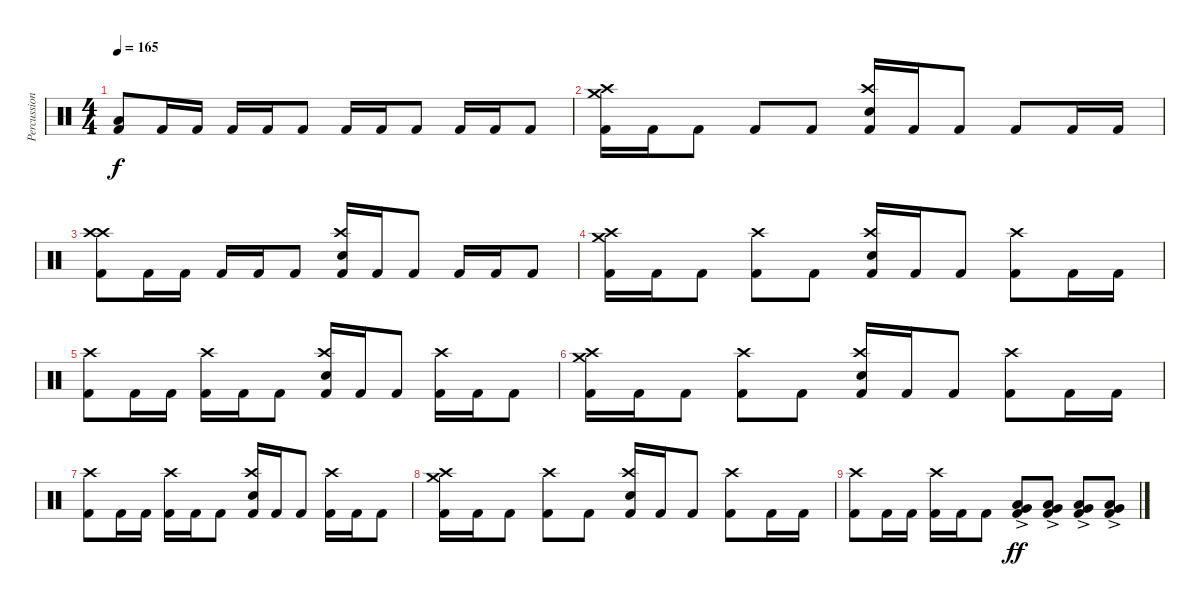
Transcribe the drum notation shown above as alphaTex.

\track ("Percussion" "Percussion") {instrument percussion}
\staff {score}
\articulation defaults
\ts (4 4)
\tempo 165
\clef neutral
\ks c
("Low Floor Tom (hit)" "Kick (hit) 2").8{dy f} "Kick (hit) 2".16 "Kick (hit) 2".16 "Kick (hit) 2".16 "Kick (hit) 2".16 "Kick (hit) 2".8 "Kick (hit) 2".16 "Kick (hit) 2".16 "Kick (hit) 2".8 "Kick (hit) 2".16 "Kick (hit) 2".16 "Kick (hit) 2".8 |
("Crash medium (hit)" "Crash high (hit)" "Kick (hit) 2").16 "Kick (hit) 2".16 "Kick (hit) 2".8 "Kick (hit) 2".8 "Kick (hit) 2".8 ("Crash high (hit)" "Snare (hit) 2" "Kick (hit) 2").16 "Kick (hit) 2".16 "Kick (hit) 2".8 "Kick (hit) 2".8 "Kick (hit) 2".16 "Kick (hit) 2".16 |
("Crash high (hit)" "Crash high (hit)" "Kick (hit) 2").8 "Kick (hit) 2".16 "Kick (hit) 2".16 "Kick (hit) 2".16 "Kick (hit) 2".16 "Kick (hit) 2".8 ("Crash high (hit)" "Snare (hit) 2" "Kick (hit) 2").16 "Kick (hit) 2".16 "Kick (hit) 2".8 "Kick (hit) 2".16 "Kick (hit) 2".16 "Kick (hit) 2".8 |
("Crash medium (hit)" "Crash high (hit)" "Kick (hit) 2").16 "Kick (hit) 2".16 "Kick (hit) 2".8 ("Crash high (hit)" "Kick (hit) 2").8 "Kick (hit) 2".8 ("Crash high (hit)" "Snare (hit) 2" "Kick (hit) 2").16 "Kick (hit) 2".16 "Kick (hit) 2".8 ("Crash high (hit)" "Kick (hit) 2").8 "Kick (hit) 2".16 "Kick (hit) 2".16 |
("Crash high (hit)" "Kick (hit) 2").8 "Kick (hit) 2".16 "Kick (hit) 2".16 ("Crash high (hit)" "Kick (hit) 2").16 "Kick (hit) 2".16 "Kick (hit) 2".8 ("Crash high (hit)" "Snare (hit) 2" "Kick (hit) 2").16 "Kick (hit) 2".16 "Kick (hit) 2".8 ("Crash high (hit)" "Kick (hit) 2").16 "Kick (hit) 2".16 "Kick (hit) 2".8 |
("Crash medium (hit)" "Crash high (hit)" "Kick (hit) 2").16 "Kick (hit) 2".16 "Kick (hit) 2".8 ("Crash high (hit)" "Kick (hit) 2").8 "Kick (hit) 2".8 ("Crash high (hit)" "Snare (hit) 2" "Kick (hit) 2").16 "Kick (hit) 2".16 "Kick (hit) 2".8 ("Crash high (hit)" "Kick (hit) 2").8 "Kick (hit) 2".16 "Kick (hit) 2".16 |
("Crash high (hit)" "Kick (hit) 2").8 "Kick (hit) 2".16 "Kick (hit) 2".16 ("Crash high (hit)" "Kick (hit) 2").16 "Kick (hit) 2".16 "Kick (hit) 2".8 ("Crash high (hit)" "Snare (hit) 2" "Kick (hit) 2").16 "Kick (hit) 2".16 "Kick (hit) 2".8 ("Crash high (hit)" "Kick (hit) 2").16 "Kick (hit) 2".16 "Kick (hit) 2".8 |
("Crash medium (hit)" "Crash high (hit)" "Kick (hit) 2").16 "Kick (hit) 2".16 "Kick (hit) 2".8 ("Crash high (hit)" "Kick (hit) 2").8 "Kick (hit) 2".8 ("Crash high (hit)" "Snare (hit) 2" "Kick (hit) 2").16 "Kick (hit) 2".16 "Kick (hit) 2".8 ("Crash high (hit)" "Kick (hit) 2").8 "Kick (hit) 2".16 "Kick (hit) 2".16 |
("Crash high (hit)" "Kick (hit) 2").8 "Kick (hit) 2".16 "Kick (hit) 2".16 ("Crash high (hit)" "Kick (hit) 2").16 "Kick (hit) 2".16 "Kick (hit) 2".8 ("Very Low Tom (hit)"{ac} "Low Floor Tom (hit)"{ac} "Kick (hit) 2"{ac}).8{dy ff} ("Very Low Tom (hit)"{ac} "Low Floor Tom (hit)"{ac} "Kick (hit) 2"{ac}).8 ("Very Low Tom (hit)"{ac} "Low Floor Tom (hit)"{ac} "Kick (hit) 2"{ac}).8 ("Very Low Tom (hit)"{ac} "Low Floor Tom (hit)"{ac} "Kick (hit) 2"{ac}).8
